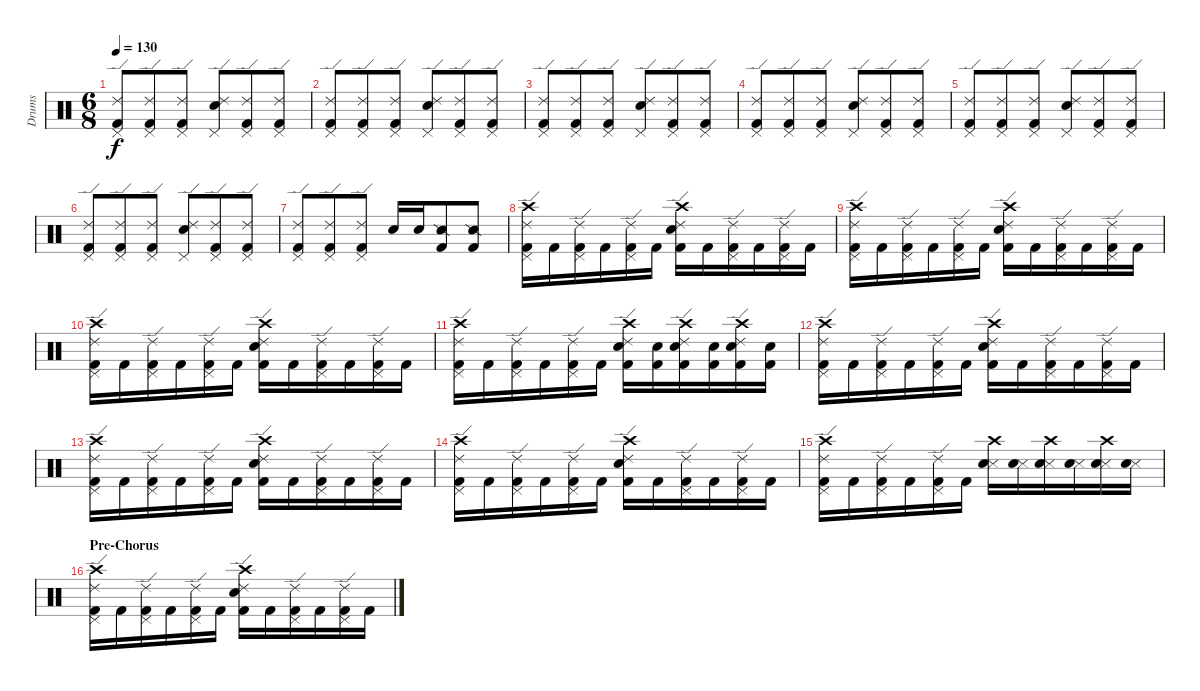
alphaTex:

\track ("Drums" "Drums") {instrument percussion}
\staff {score}
\articulation defaults
\ts (6 8)
\tempo 130
\clef neutral
\ks c
("Ride (edge) 2" "Pedal Hi-Hat (hit)" "Kick (hit) 2").8{dy f} ("Ride (edge) 2" "Pedal Hi-Hat (hit)" "Kick (hit) 2").8 ("Ride (edge) 2" "Pedal Hi-Hat (hit)" "Kick (hit) 2").8 ("Ride (edge) 2" "Pedal Hi-Hat (hit)" "Electric Snare (hit)").8 ("Ride (edge) 2" "Pedal Hi-Hat (hit)" "Kick (hit) 2").8 ("Ride (edge) 2" "Pedal Hi-Hat (hit)" "Kick (hit) 2").8 |
("Ride (edge) 2" "Pedal Hi-Hat (hit)" "Kick (hit) 2").8 ("Ride (edge) 2" "Pedal Hi-Hat (hit)" "Kick (hit) 2").8 ("Ride (edge) 2" "Pedal Hi-Hat (hit)" "Kick (hit) 2").8 ("Ride (edge) 2" "Pedal Hi-Hat (hit)" "Electric Snare (hit)").8 ("Ride (edge) 2" "Pedal Hi-Hat (hit)" "Kick (hit) 2").8 ("Ride (edge) 2" "Pedal Hi-Hat (hit)" "Kick (hit) 2").8 |
("Ride (edge) 2" "Pedal Hi-Hat (hit)" "Kick (hit) 2").8 ("Ride (edge) 2" "Pedal Hi-Hat (hit)" "Kick (hit) 2").8 ("Ride (edge) 2" "Pedal Hi-Hat (hit)" "Kick (hit) 2").8 ("Ride (edge) 2" "Pedal Hi-Hat (hit)" "Electric Snare (hit)").8 ("Ride (edge) 2" "Pedal Hi-Hat (hit)" "Kick (hit) 2").8 ("Ride (edge) 2" "Pedal Hi-Hat (hit)" "Kick (hit) 2").8 |
("Ride (edge) 2" "Pedal Hi-Hat (hit)" "Kick (hit) 2").8 ("Ride (edge) 2" "Pedal Hi-Hat (hit)" "Kick (hit) 2").8 ("Ride (edge) 2" "Pedal Hi-Hat (hit)" "Kick (hit) 2").8 ("Ride (edge) 2" "Pedal Hi-Hat (hit)" "Electric Snare (hit)").8 ("Ride (edge) 2" "Pedal Hi-Hat (hit)" "Kick (hit) 2").8 ("Ride (edge) 2" "Pedal Hi-Hat (hit)" "Kick (hit) 2").8 |
("Ride (edge) 2" "Pedal Hi-Hat (hit)" "Kick (hit) 2").8 ("Ride (edge) 2" "Pedal Hi-Hat (hit)" "Kick (hit) 2").8 ("Ride (edge) 2" "Pedal Hi-Hat (hit)" "Kick (hit) 2").8 ("Ride (edge) 2" "Pedal Hi-Hat (hit)" "Electric Snare (hit)").8 ("Ride (edge) 2" "Pedal Hi-Hat (hit)" "Kick (hit) 2").8 ("Ride (edge) 2" "Pedal Hi-Hat (hit)" "Kick (hit) 2").8 |
("Ride (edge) 2" "Pedal Hi-Hat (hit)" "Kick (hit) 2").8 ("Ride (edge) 2" "Pedal Hi-Hat (hit)" "Kick (hit) 2").8 ("Ride (edge) 2" "Pedal Hi-Hat (hit)" "Kick (hit) 2").8 ("Ride (edge) 2" "Pedal Hi-Hat (hit)" "Electric Snare (hit)").8 ("Ride (edge) 2" "Pedal Hi-Hat (hit)" "Kick (hit) 2").8 ("Ride (edge) 2" "Pedal Hi-Hat (hit)" "Kick (hit) 2").8 |
("Ride (edge) 2" "Pedal Hi-Hat (hit)" "Kick (hit) 2").8 ("Ride (edge) 2" "Pedal Hi-Hat (hit)" "Kick (hit) 2").8 ("Ride (edge) 2" "Pedal Hi-Hat (hit)" "Kick (hit) 2").8 "Electric Snare (hit)".16 "Electric Snare (hit)".16 ("Snare (side stick) 2" "Kick (hit) 2").8 ("Snare (side stick) 2" "Kick (hit) 2").8 |
("Ride (edge) 2" "Crash high (hit)" "Pedal Hi-Hat (hit)" "Kick (hit) 2").16 "Kick (hit) 2".16 ("Ride (edge) 2" "Pedal Hi-Hat (hit)" "Kick (hit) 2").16 "Kick (hit) 2".16 ("Ride (edge) 2" "Pedal Hi-Hat (hit)" "Kick (hit) 2").16 "Kick (hit) 2".16 ("Ride (edge) 2" "Crash high (hit)" "Electric Snare (hit)" "Kick (hit) 2").16 "Kick (hit) 2".16 ("Ride (edge) 2" "Pedal Hi-Hat (hit)" "Kick (hit) 2").16 "Kick (hit) 2".16 ("Ride (edge) 2" "Pedal Hi-Hat (hit)" "Kick (hit) 2").16 "Kick (hit) 2".16 |
("Ride (edge) 2" "Crash high (hit)" "Pedal Hi-Hat (hit)" "Kick (hit) 2").16 "Kick (hit) 2".16 ("Ride (edge) 2" "Pedal Hi-Hat (hit)" "Kick (hit) 2").16 "Kick (hit) 2".16 ("Ride (edge) 2" "Pedal Hi-Hat (hit)" "Kick (hit) 2").16 "Kick (hit) 2".16 ("Ride (edge) 2" "Crash high (hit)" "Electric Snare (hit)" "Kick (hit) 2").16 "Kick (hit) 2".16 ("Ride (edge) 2" "Pedal Hi-Hat (hit)" "Kick (hit) 2").16 "Kick (hit) 2".16 ("Ride (edge) 2" "Pedal Hi-Hat (hit)" "Kick (hit) 2").16 "Kick (hit) 2".16 |
("Ride (edge) 2" "Crash high (hit)" "Pedal Hi-Hat (hit)" "Kick (hit) 2").16 "Kick (hit) 2".16 ("Ride (edge) 2" "Pedal Hi-Hat (hit)" "Kick (hit) 2").16 "Kick (hit) 2".16 ("Ride (edge) 2" "Pedal Hi-Hat (hit)" "Kick (hit) 2").16 "Kick (hit) 2".16 ("Ride (edge) 2" "Crash high (hit)" "Electric Snare (hit)" "Kick (hit) 2").16 "Kick (hit) 2".16 ("Ride (edge) 2" "Pedal Hi-Hat (hit)" "Kick (hit) 2").16 "Kick (hit) 2".16 ("Ride (edge) 2" "Pedal Hi-Hat (hit)" "Kick (hit) 2").16 "Kick (hit) 2".16 |
("Ride (edge) 2" "Crash high (hit)" "Pedal Hi-Hat (hit)" "Kick (hit) 2").16 "Kick (hit) 2".16 ("Ride (edge) 2" "Pedal Hi-Hat (hit)" "Kick (hit) 2").16 "Kick (hit) 2".16 ("Ride (edge) 2" "Pedal Hi-Hat (hit)" "Kick (hit) 2").16 "Kick (hit) 2".16 ("Ride (edge) 2" "Crash high (hit)" "Electric Snare (hit)" "Kick (hit) 2").16 ("Electric Snare (hit)" "Kick (hit) 2").16 ("Ride (edge) 2" "Crash high (hit)" "Electric Snare (hit)" "Kick (hit) 2").16 ("Electric Snare (hit)" "Kick (hit) 2").16 ("Ride (edge) 2" "Crash high (hit)" "Electric Snare (hit)" "Kick (hit) 2").16 ("Electric Snare (hit)" "Kick (hit) 2").16 |
("Ride (edge) 2" "Crash high (hit)" "Pedal Hi-Hat (hit)" "Kick (hit) 2").16 "Kick (hit) 2".16 ("Ride (edge) 2" "Pedal Hi-Hat (hit)" "Kick (hit) 2").16 "Kick (hit) 2".16 ("Ride (edge) 2" "Pedal Hi-Hat (hit)" "Kick (hit) 2").16 "Kick (hit) 2".16 ("Ride (edge) 2" "Crash high (hit)" "Electric Snare (hit)" "Kick (hit) 2").16 "Kick (hit) 2".16 ("Ride (edge) 2" "Pedal Hi-Hat (hit)" "Kick (hit) 2").16 "Kick (hit) 2".16 ("Ride (edge) 2" "Pedal Hi-Hat (hit)" "Kick (hit) 2").16 "Kick (hit) 2".16 |
("Ride (edge) 2" "Crash high (hit)" "Pedal Hi-Hat (hit)" "Kick (hit) 2").16 "Kick (hit) 2".16 ("Ride (edge) 2" "Pedal Hi-Hat (hit)" "Kick (hit) 2").16 "Kick (hit) 2".16 ("Ride (edge) 2" "Pedal Hi-Hat (hit)" "Kick (hit) 2").16 "Kick (hit) 2".16 ("Ride (edge) 2" "Crash high (hit)" "Electric Snare (hit)" "Kick (hit) 2").16 "Kick (hit) 2".16 ("Ride (edge) 2" "Pedal Hi-Hat (hit)" "Kick (hit) 2").16 "Kick (hit) 2".16 ("Ride (edge) 2" "Pedal Hi-Hat (hit)" "Kick (hit) 2").16 "Kick (hit) 2".16 |
("Ride (edge) 2" "Crash high (hit)" "Pedal Hi-Hat (hit)" "Kick (hit) 2").16 "Kick (hit) 2".16 ("Ride (edge) 2" "Pedal Hi-Hat (hit)" "Kick (hit) 2").16 "Kick (hit) 2".16 ("Ride (edge) 2" "Pedal Hi-Hat (hit)" "Kick (hit) 2").16 "Kick (hit) 2".16 ("Ride (edge) 2" "Crash high (hit)" "Electric Snare (hit)" "Kick (hit) 2").16 "Kick (hit) 2".16 ("Ride (edge) 2" "Pedal Hi-Hat (hit)" "Kick (hit) 2").16 "Kick (hit) 2".16 ("Ride (edge) 2" "Pedal Hi-Hat (hit)" "Kick (hit) 2").16 "Kick (hit) 2".16 |
("Ride (edge) 2" "Crash high (hit)" "Pedal Hi-Hat (hit)" "Kick (hit) 2").16 "Kick (hit) 2".16 ("Ride (edge) 2" "Pedal Hi-Hat (hit)" "Kick (hit) 2").16 "Kick (hit) 2".16 ("Ride (edge) 2" "Pedal Hi-Hat (hit)" "Kick (hit) 2").16 "Kick (hit) 2".16 ("Crash high (hit)" "Snare (side stick) 3" "Electric Snare (hit)").16 ("Snare (side stick) 3" "Electric Snare (hit)").16 ("Crash high (hit)" "Snare (side stick) 3" "Electric Snare (hit)").16 ("Snare (side stick) 3" "Electric Snare (hit)").16 ("Crash high (hit)" "Snare (side stick) 3" "Electric Snare (hit)").16 ("Snare (side stick) 3" "Electric Snare (hit)").16 |
\section ("" "Pre-Chorus")
("Ride (edge) 2" "Crash high (hit)" "Pedal Hi-Hat (hit)" "Kick (hit) 2").16 "Kick (hit) 2".16 ("Ride (edge) 2" "Pedal Hi-Hat (hit)" "Kick (hit) 2").16 "Kick (hit) 2".16 ("Ride (edge) 2" "Pedal Hi-Hat (hit)" "Kick (hit) 2").16 "Kick (hit) 2".16 ("Ride (edge) 2" "Crash high (hit)" "Electric Snare (hit)" "Kick (hit) 2").16 "Kick (hit) 2".16 ("Ride (edge) 2" "Pedal Hi-Hat (hit)" "Kick (hit) 2").16 "Kick (hit) 2".16 ("Ride (edge) 2" "Pedal Hi-Hat (hit)" "Kick (hit) 2").16 "Kick (hit) 2".16
